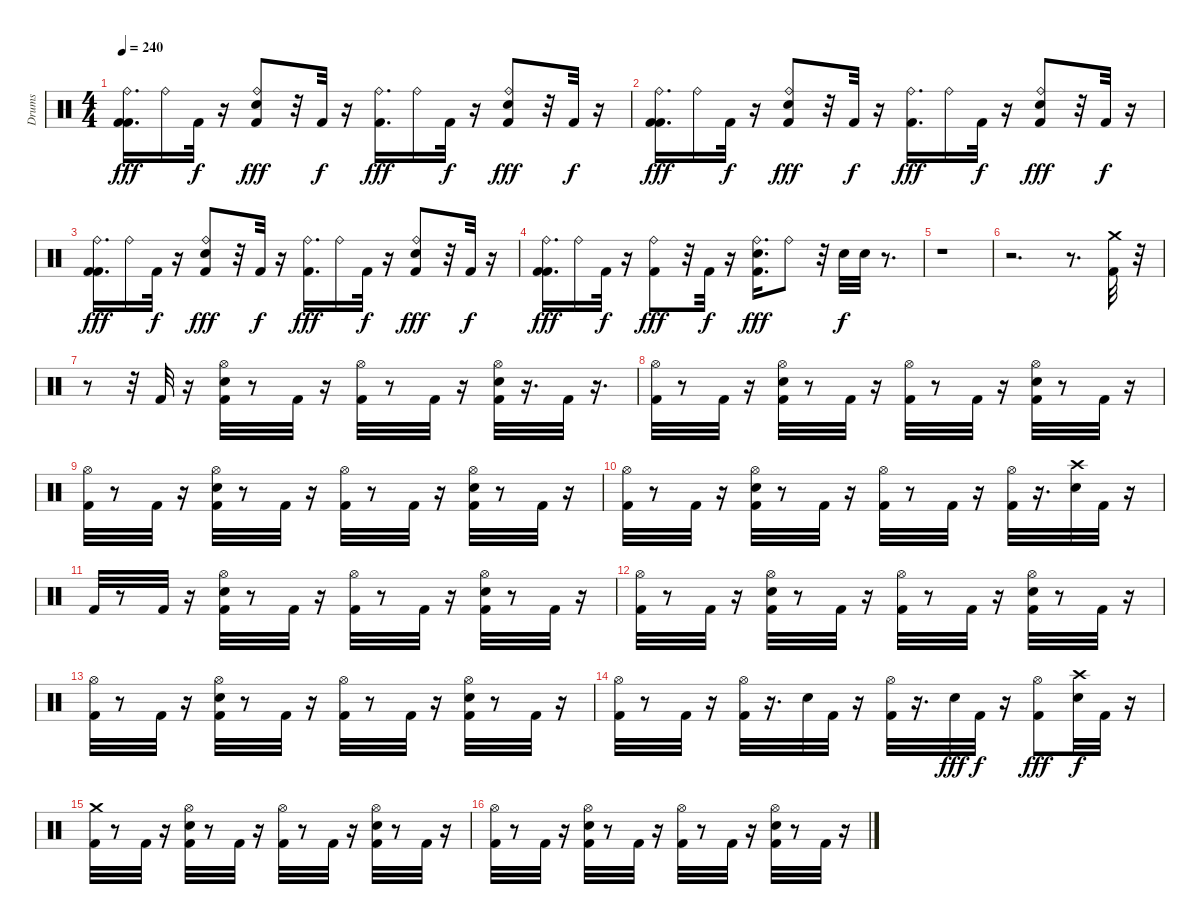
\track ("Drums" "Drums") {instrument percussion}
\staff {score}
\articulation defaults
\ts (4 4)
\tempo 240
\clef neutral
\ks c
("Kick (hit) 2" "Kick (hit) 2" "Ride (bell)").16{d dy fff} "Ride (bell)".16 "Kick (hit) 2".32{dy f} r.16 ("Ride (bell)" "Kick (hit) 2" "Electric Snare (hit)").8{dy fff} r.32 "Kick (hit) 2".32{dy f} r.16 ("Kick (hit) 2" "Ride (bell)").16{d dy fff} "Ride (bell)".16 "Kick (hit) 2".32{dy f} r.16 ("Ride (bell)" "Electric Snare (hit)" "Kick (hit) 2").8{dy fff} r.32 "Kick (hit) 2".32{dy f} r.16 |
("Kick (hit) 2" "Ride (bell)" "Kick (hit) 2").16{d dy fff} "Ride (bell)".16 "Kick (hit) 2".32{dy f} r.16 ("Kick (hit) 2" "Ride (bell)" "Electric Snare (hit)").8{dy fff} r.32 "Kick (hit) 2".32{dy f} r.16 ("Kick (hit) 2" "Ride (bell)").16{d dy fff} "Ride (bell)".16 "Kick (hit) 2".32{dy f} r.16 ("Electric Snare (hit)" "Ride (bell)" "Kick (hit) 2").8{dy fff} r.32 "Kick (hit) 2".32{dy f} r.16 |
("Kick (hit) 2" "Kick (hit) 2" "Ride (bell)").16{d dy fff} "Ride (bell)".16 "Kick (hit) 2".32{dy f} r.16 ("Electric Snare (hit)" "Ride (bell)" "Kick (hit) 2").8{dy fff} r.32 "Kick (hit) 2".32{dy f} r.16 ("Kick (hit) 2" "Ride (bell)").16{d dy fff} "Ride (bell)".16 "Kick (hit) 2".32{dy f} r.16 ("Electric Snare (hit)" "Kick (hit) 2" "Ride (bell)").8{dy fff} r.32 "Kick (hit) 2".32{dy f} r.16 |
("Kick (hit) 2" "Ride (bell)" "Kick (hit) 2").16{d dy fff} "Ride (bell)".16 "Kick (hit) 2".32{dy f} r.16 ("Ride (bell)" "Kick (hit) 2").8{dy fff} r.32 "Kick (hit) 2".32{dy f} r.16 ("Kick (hit) 2" "Ride (bell)" "Electric Snare (hit)").16{d dy fff} "Ride (bell)".8 r.32 "Electric Snare (hit)".32{dy f} "Electric Snare (hit)".32 r.8{d} |
r.1 |
r.2{d} r.8{d} ("Crash medium (hit)" "Kick (hit) 2").32 r.32 |
r.8 r.32 "Kick (hit) 2".32 r.16 ("Electric Snare (hit)" "Kick (hit) 2" "Hi-Hat (open)").32 r.8 "Kick (hit) 2".32 r.16 ("Kick (hit) 2" "Hi-Hat (open)").32 r.8 "Kick (hit) 2".32 r.16 ("Electric Snare (hit)" "Kick (hit) 2" "Hi-Hat (open)").32 r.16{d} "Kick (hit) 2".32 r.16{d} |
("Kick (hit) 2" "Hi-Hat (open)").32 r.8 "Kick (hit) 2".32 r.16 ("Electric Snare (hit)" "Hi-Hat (open)" "Kick (hit) 2").32 r.8 "Kick (hit) 2".32 r.16 ("Hi-Hat (open)" "Kick (hit) 2").32 r.8 "Kick (hit) 2".32 r.16 ("Hi-Hat (open)" "Kick (hit) 2" "Electric Snare (hit)").32 r.8 "Kick (hit) 2".32 r.16 |
("Hi-Hat (open)" "Kick (hit) 2").32 r.8 "Kick (hit) 2".32 r.16 ("Hi-Hat (open)" "Electric Snare (hit)" "Kick (hit) 2").32 r.8 "Kick (hit) 2".32 r.16 ("Hi-Hat (open)" "Kick (hit) 2").32 r.8 "Kick (hit) 2".32 r.16 ("Hi-Hat (open)" "Kick (hit) 2" "Electric Snare (hit)").32 r.8 "Kick (hit) 2".32 r.16 |
("Hi-Hat (open)" "Kick (hit) 2").32 r.8 "Kick (hit) 2".32 r.16 ("Kick (hit) 2" "Hi-Hat (open)" "Electric Snare (hit)").32 r.8 "Kick (hit) 2".32 r.16 ("Kick (hit) 2" "Hi-Hat (open)").32 r.8 "Kick (hit) 2".32 r.16 ("Kick (hit) 2" "Hi-Hat (open)").32 r.16{d} ("Electric Snare (hit)" "Crash high (hit)").32 "Kick (hit) 2".32 r.16 |
"Kick (hit) 2".32 r.8 "Kick (hit) 2".32 r.16 ("Hi-Hat (open)" "Kick (hit) 2" "Electric Snare (hit)").32 r.8 "Kick (hit) 2".32 r.16 ("Kick (hit) 2" "Hi-Hat (open)").32 r.8 "Kick (hit) 2".32 r.16 ("Hi-Hat (open)" "Kick (hit) 2" "Electric Snare (hit)").32 r.8 "Kick (hit) 2".32 r.16 |
("Hi-Hat (open)" "Kick (hit) 2").32 r.8 "Kick (hit) 2".32 r.16 ("Kick (hit) 2" "Hi-Hat (open)" "Electric Snare (hit)").32 r.8 "Kick (hit) 2".32 r.16 ("Hi-Hat (open)" "Kick (hit) 2").32 r.8 "Kick (hit) 2".32 r.16 ("Hi-Hat (open)" "Kick (hit) 2" "Electric Snare (hit)").32 r.8 "Kick (hit) 2".32 r.16 |
("Hi-Hat (open)" "Kick (hit) 2").32 r.8 "Kick (hit) 2".32 r.16 ("Hi-Hat (open)" "Kick (hit) 2" "Electric Snare (hit)").32 r.8 "Kick (hit) 2".32 r.16 ("Hi-Hat (open)" "Kick (hit) 2").32 r.8 "Kick (hit) 2".32 r.16 ("Kick (hit) 2" "Hi-Hat (open)" "Electric Snare (hit)").32 r.8 "Kick (hit) 2".32 r.16 |
("Kick (hit) 2" "Hi-Hat (open)").32 r.8 "Kick (hit) 2".32 r.16 ("Hi-Hat (open)" "Kick (hit) 2").32 r.16{d} "Electric Snare (hit)".32 "Kick (hit) 2".32 r.16 ("Hi-Hat (open)" "Kick (hit) 2").32 r.16{d} "Electric Snare (hit)".32{dy fff} "Kick (hit) 2".32{dy f} r.16 ("Kick (hit) 2" "Hi-Hat (open)").8{dy fff} ("Crash high (hit)" "Electric Snare (hit)").32{dy f} "Kick (hit) 2".32 r.16 |
("Crash medium (hit)" "Kick (hit) 2").32 r.8 "Kick (hit) 2".32 r.16 ("Electric Snare (hit)" "Kick (hit) 2" "Hi-Hat (open)").32 r.8 "Kick (hit) 2".32 r.16 ("Kick (hit) 2" "Hi-Hat (open)").32 r.8 "Kick (hit) 2".32 r.16 ("Electric Snare (hit)" "Kick (hit) 2" "Hi-Hat (open)").32 r.8 "Kick (hit) 2".32 r.16 |
("Hi-Hat (open)" "Kick (hit) 2").32 r.8 "Kick (hit) 2".32 r.16 ("Hi-Hat (open)" "Kick (hit) 2" "Electric Snare (hit)").32 r.8 "Kick (hit) 2".32 r.16 ("Hi-Hat (open)" "Kick (hit) 2").32 r.8 "Kick (hit) 2".32 r.16 ("Electric Snare (hit)" "Hi-Hat (open)" "Kick (hit) 2").32 r.8 "Kick (hit) 2".32 r.16
